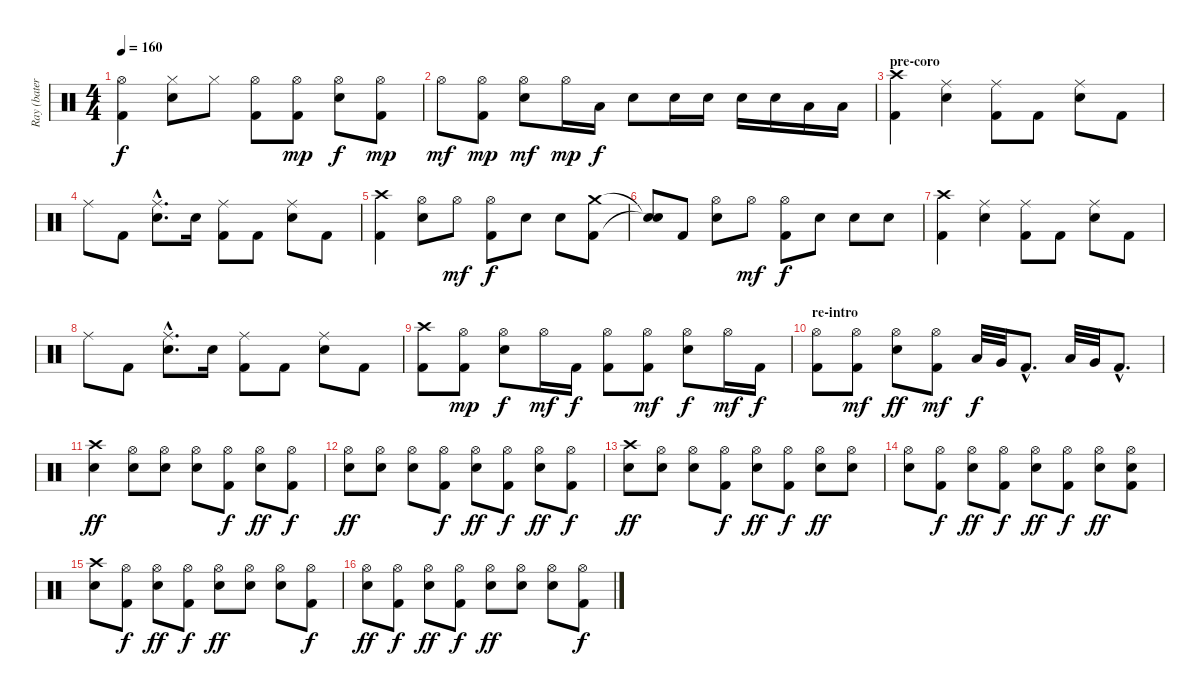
\track ("Ray (batería)" "Ray (bater") {instrument percussion}
\staff {score}
\articulation defaults
\ts (4 4)
\tempo 160
\clef neutral
\ks c
("Hi-Hat (open)" "Kick (hit) 2").4{dy f} ("Hi-Hat (closed)" "Snare (hit) 2").8 "Hi-Hat (closed)".8 ("Hi-Hat (open)" "Kick (hit) 2").8 ("Hi-Hat (open)" "Kick (hit) 2").8{dy mp} ("Hi-Hat (open)" "Snare (hit) 2").8{dy f} ("Hi-Hat (open)" "Kick (hit) 2").8{dy mp} |
"Hi-Hat (open)".8{dy mf} ("Hi-Hat (open)" "Kick (hit) 2").8{dy mp} ("Hi-Hat (open)" "Snare (hit) 2").8{dy mf} "Hi-Hat (open)".16{dy mp} "Low Floor Tom (hit)".16{dy f} "Snare (hit) 2".8 "Snare (hit) 2".16 "Snare (hit) 2".16 "Snare (hit) 2".16 "Snare (hit) 2".16 "Low Tom (hit)".16 "Low Tom (hit)".16 |
\section ("" "pre-coro")
("Crash high (hit)" "Kick (hit) 2").4 ("Ride (middle)" "Snare (hit) 2").4 ("Ride (middle)" "Kick (hit) 2").8 "Kick (hit) 2".8 ("Ride (middle)" "Snare (hit) 2").8 "Kick (hit) 2".8 |
"Ride (middle)".8 "Kick (hit) 2".8 ("Ride (middle)"{hac} "Snare (hit) 2"{hac}).8{d} "Snare (hit) 2".16 ("Ride (middle)" "Kick (hit) 2").8 "Kick (hit) 2".8 ("Ride (middle)" "Snare (hit) 2").8 "Kick (hit) 2".8 |
("Crash high (hit)" "Kick (hit) 2").4 ("Hi-Hat (open)" "Snare (hit) 2").8 "Hi-Hat (open)".8{dy mf} ("Hi-Hat (open)" "Kick (hit) 2").8{dy f} "Snare (hit) 2".8 "Snare (hit) 2".8 ("Crash medium (hit)" "Kick (hit) 2").8 |
("Snare (hit)"{t} "Snare (hit)"{t}).8 "Kick (hit) 2".8 ("Hi-Hat (open)" "Snare (hit) 2").8 "Hi-Hat (open)".8{dy mf} ("Hi-Hat (open)" "Kick (hit) 2").8{dy f} "Snare (hit) 2".8 "Snare (hit) 2".8 "Snare (hit) 2".8 |
("Crash high (hit)" "Kick (hit) 2").4 ("Ride (middle)" "Snare (hit) 2").4 ("Ride (middle)" "Kick (hit) 2").8 "Kick (hit) 2".8 ("Ride (middle)" "Snare (hit) 2").8 "Kick (hit) 2".8 |
"Ride (middle)".8 "Kick (hit) 2".8 ("Ride (middle)"{hac} "Snare (hit) 2"{hac}).8{d} "Snare (hit) 2".16 ("Ride (middle)" "Kick (hit) 2").8 "Kick (hit) 2".8 ("Ride (middle)" "Snare (hit) 2").8 "Kick (hit) 2".8 |
("Crash high (hit)" "Kick (hit) 2").8 ("Hi-Hat (open)" "Kick (hit) 2").8{dy mp} ("Hi-Hat (open)" "Snare (hit) 2").8{dy f} "Hi-Hat (open)".16{dy mf} "Kick (hit) 2".16{dy f} ("Hi-Hat (open)" "Kick (hit) 2").8 ("Hi-Hat (open)" "Kick (hit) 2").8{dy mf} ("Hi-Hat (open)" "Snare (hit) 2").8{dy f} "Hi-Hat (open)".16{dy mf} "Kick (hit) 2".16{dy f} |
\section ("" "re-intro")
("Hi-Hat (open)" "Kick (hit) 2").8 ("Hi-Hat (open)" "Kick (hit) 2").8{dy mf} ("Hi-Hat (open)" "Snare (hit) 2").8{dy ff} ("Hi-Hat (open)" "Kick (hit) 2").8{dy mf} "Low Floor Tom (hit)".32{dy f} "Very Low Tom (hit)".32 "Kick (hit) 2"{hac}.8{d} "Low Floor Tom (hit)".32 "Very Low Tom (hit)".32 "Kick (hit) 2"{hac}.8{d} |
("Crash high (hit)" "Snare (hit) 2").4{dy ff} ("Hi-Hat (open)" "Snare (hit) 2").8 ("Hi-Hat (open)" "Snare (hit) 2").8 ("Hi-Hat (open)" "Snare (hit) 2").8 ("Hi-Hat (open)" "Kick (hit) 2").8{dy f} ("Hi-Hat (open)" "Snare (hit) 2").8{dy ff} ("Hi-Hat (open)" "Kick (hit) 2").8{dy f} |
("Hi-Hat (open)" "Snare (hit) 2").8{dy ff} ("Hi-Hat (open)" "Snare (hit) 2").8 ("Hi-Hat (open)" "Snare (hit) 2").8 ("Hi-Hat (open)" "Kick (hit) 2").8{dy f} ("Hi-Hat (open)" "Snare (hit) 2").8{dy ff} ("Hi-Hat (open)" "Kick (hit) 2").8{dy f} ("Hi-Hat (open)" "Snare (hit) 2").8{dy ff} ("Hi-Hat (open)" "Kick (hit) 2").8{dy f} |
("Crash high (hit)" "Snare (hit) 2").8{dy ff} ("Hi-Hat (open)" "Snare (hit) 2").8 ("Hi-Hat (open)" "Snare (hit) 2").8 ("Hi-Hat (open)" "Kick (hit) 2").8{dy f} ("Hi-Hat (open)" "Snare (hit) 2").8{dy ff} ("Hi-Hat (open)" "Kick (hit) 2").8{dy f} ("Hi-Hat (open)" "Snare (hit) 2").8{dy ff} ("Hi-Hat (open)" "Snare (hit) 2").8 |
("Hi-Hat (open)" "Snare (hit) 2").8 ("Hi-Hat (open)" "Kick (hit) 2").8{dy f} ("Hi-Hat (open)" "Snare (hit) 2").8{dy ff} ("Hi-Hat (open)" "Kick (hit) 2").8{dy f} ("Hi-Hat (open)" "Snare (hit) 2").8{dy ff} ("Hi-Hat (open)" "Kick (hit) 2").8{dy f} ("Hi-Hat (open)" "Snare (hit) 2").8{dy ff} ("Hi-Hat (open)" "Snare (hit) 2" "Kick (hit) 2").8 |
("Crash high (hit)" "Snare (hit) 2").8 ("Hi-Hat (open)" "Kick (hit) 2").8{dy f} ("Hi-Hat (open)" "Snare (hit) 2").8{dy ff} ("Hi-Hat (open)" "Kick (hit) 2").8{dy f} ("Hi-Hat (open)" "Snare (hit) 2").8{dy ff} ("Hi-Hat (open)" "Snare (hit) 2").8 ("Hi-Hat (open)" "Snare (hit) 2").8 ("Hi-Hat (open)" "Kick (hit) 2").8{dy f} |
("Hi-Hat (open)" "Snare (hit) 2").8{dy ff} ("Hi-Hat (open)" "Kick (hit) 2").8{dy f} ("Hi-Hat (open)" "Snare (hit) 2").8{dy ff} ("Hi-Hat (open)" "Kick (hit) 2").8{dy f} ("Hi-Hat (open)" "Snare (hit) 2").8{dy ff} ("Hi-Hat (open)" "Snare (hit) 2").8 ("Hi-Hat (open)" "Snare (hit) 2").8 ("Hi-Hat (open)" "Kick (hit) 2").8{dy f}
